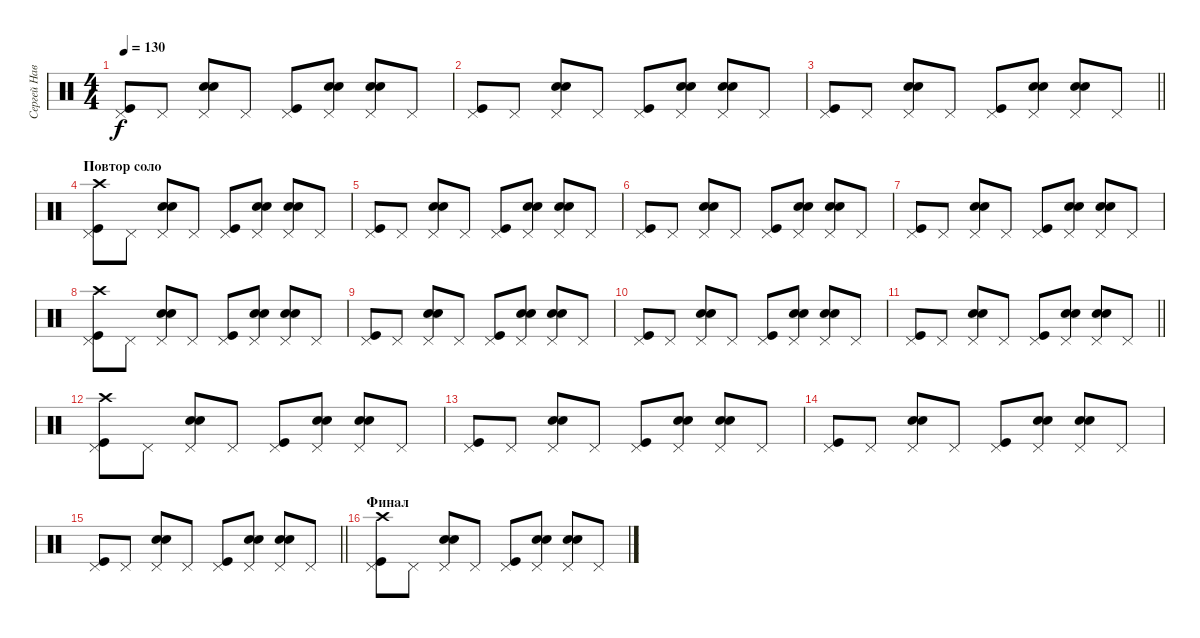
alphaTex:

\track ("Сергей Наветный (ударные)" "Сергей Нав") {instrument percussion}
\staff {score}
\articulation defaults
\ts (4 4)
\tempo 130
\clef neutral
\ks c
("Kick (hit)" "Pedal Hi-Hat (hit)").8{dy f} "Pedal Hi-Hat (hit)".8 ("Hand Clap (hit)" "Snare (hit) 2" "Pedal Hi-Hat (hit)").8 "Pedal Hi-Hat (hit)".8 ("Kick (hit)" "Pedal Hi-Hat (hit)").8 ("Hand Clap (hit)" "Snare (hit) 2" "Pedal Hi-Hat (hit)").8 ("Hand Clap (hit)" "Snare (hit) 2" "Pedal Hi-Hat (hit)").8 "Pedal Hi-Hat (hit)".8 |
("Kick (hit)" "Pedal Hi-Hat (hit)").8 "Pedal Hi-Hat (hit)".8 ("Hand Clap (hit)" "Snare (hit) 2" "Pedal Hi-Hat (hit)").8 "Pedal Hi-Hat (hit)".8 ("Kick (hit)" "Pedal Hi-Hat (hit)").8 ("Hand Clap (hit)" "Snare (hit) 2" "Pedal Hi-Hat (hit)").8 ("Hand Clap (hit)" "Snare (hit) 2" "Pedal Hi-Hat (hit)").8 "Pedal Hi-Hat (hit)".8 |
\barLineRight lightlight
("Kick (hit)" "Pedal Hi-Hat (hit)").8 "Pedal Hi-Hat (hit)".8 ("Hand Clap (hit)" "Snare (hit) 2" "Pedal Hi-Hat (hit)").8 "Pedal Hi-Hat (hit)".8 ("Kick (hit)" "Pedal Hi-Hat (hit)").8 ("Hand Clap (hit)" "Snare (hit) 2" "Pedal Hi-Hat (hit)").8 ("Hand Clap (hit)" "Snare (hit) 2" "Pedal Hi-Hat (hit)").8 "Pedal Hi-Hat (hit)".8 |
\section ("" "Повтор соло")
("Crash high (hit)" "Kick (hit)" "Pedal Hi-Hat (hit)").8 "Pedal Hi-Hat (hit)".8 ("Hand Clap (hit)" "Snare (hit) 2" "Pedal Hi-Hat (hit)").8 "Pedal Hi-Hat (hit)".8 ("Kick (hit)" "Pedal Hi-Hat (hit)").8 ("Hand Clap (hit)" "Snare (hit) 2" "Pedal Hi-Hat (hit)").8 ("Hand Clap (hit)" "Snare (hit) 2" "Pedal Hi-Hat (hit)").8 "Pedal Hi-Hat (hit)".8 |
("Kick (hit)" "Pedal Hi-Hat (hit)").8 "Pedal Hi-Hat (hit)".8 ("Hand Clap (hit)" "Snare (hit) 2" "Pedal Hi-Hat (hit)").8 "Pedal Hi-Hat (hit)".8 ("Kick (hit)" "Pedal Hi-Hat (hit)").8 ("Hand Clap (hit)" "Snare (hit) 2" "Pedal Hi-Hat (hit)").8 ("Hand Clap (hit)" "Snare (hit) 2" "Pedal Hi-Hat (hit)").8 "Pedal Hi-Hat (hit)".8 |
("Kick (hit)" "Pedal Hi-Hat (hit)").8 "Pedal Hi-Hat (hit)".8 ("Hand Clap (hit)" "Snare (hit) 2" "Pedal Hi-Hat (hit)").8 "Pedal Hi-Hat (hit)".8 ("Kick (hit)" "Pedal Hi-Hat (hit)").8 ("Hand Clap (hit)" "Snare (hit) 2" "Pedal Hi-Hat (hit)").8 ("Hand Clap (hit)" "Snare (hit) 2" "Pedal Hi-Hat (hit)").8 "Pedal Hi-Hat (hit)".8 |
("Kick (hit)" "Pedal Hi-Hat (hit)").8 "Pedal Hi-Hat (hit)".8 ("Hand Clap (hit)" "Snare (hit) 2" "Pedal Hi-Hat (hit)").8 "Pedal Hi-Hat (hit)".8 ("Kick (hit)" "Pedal Hi-Hat (hit)").8 ("Hand Clap (hit)" "Snare (hit) 2" "Pedal Hi-Hat (hit)").8 ("Hand Clap (hit)" "Snare (hit) 2" "Pedal Hi-Hat (hit)").8 "Pedal Hi-Hat (hit)".8 |
("Crash high (hit)" "Kick (hit)" "Pedal Hi-Hat (hit)").8 "Pedal Hi-Hat (hit)".8 ("Hand Clap (hit)" "Snare (hit) 2" "Pedal Hi-Hat (hit)").8 "Pedal Hi-Hat (hit)".8 ("Kick (hit)" "Pedal Hi-Hat (hit)").8 ("Hand Clap (hit)" "Snare (hit) 2" "Pedal Hi-Hat (hit)").8 ("Hand Clap (hit)" "Snare (hit) 2" "Pedal Hi-Hat (hit)").8 "Pedal Hi-Hat (hit)".8 |
("Kick (hit)" "Pedal Hi-Hat (hit)").8 "Pedal Hi-Hat (hit)".8 ("Hand Clap (hit)" "Snare (hit) 2" "Pedal Hi-Hat (hit)").8 "Pedal Hi-Hat (hit)".8 ("Kick (hit)" "Pedal Hi-Hat (hit)").8 ("Hand Clap (hit)" "Snare (hit) 2" "Pedal Hi-Hat (hit)").8 ("Hand Clap (hit)" "Snare (hit) 2" "Pedal Hi-Hat (hit)").8 "Pedal Hi-Hat (hit)".8 |
("Kick (hit)" "Pedal Hi-Hat (hit)").8 "Pedal Hi-Hat (hit)".8 ("Hand Clap (hit)" "Snare (hit) 2" "Pedal Hi-Hat (hit)").8 "Pedal Hi-Hat (hit)".8 ("Kick (hit)" "Pedal Hi-Hat (hit)").8 ("Hand Clap (hit)" "Snare (hit) 2" "Pedal Hi-Hat (hit)").8 ("Hand Clap (hit)" "Snare (hit) 2" "Pedal Hi-Hat (hit)").8 "Pedal Hi-Hat (hit)".8 |
\barLineRight lightlight
("Kick (hit)" "Pedal Hi-Hat (hit)").8 "Pedal Hi-Hat (hit)".8 ("Hand Clap (hit)" "Snare (hit) 2" "Pedal Hi-Hat (hit)").8 "Pedal Hi-Hat (hit)".8 ("Kick (hit)" "Pedal Hi-Hat (hit)").8 ("Hand Clap (hit)" "Snare (hit) 2" "Pedal Hi-Hat (hit)").8 ("Hand Clap (hit)" "Snare (hit) 2" "Pedal Hi-Hat (hit)").8 "Pedal Hi-Hat (hit)".8 |
("Crash high (hit)" "Kick (hit)" "Pedal Hi-Hat (hit)").8 "Pedal Hi-Hat (hit)".8 ("Hand Clap (hit)" "Snare (hit) 2" "Pedal Hi-Hat (hit)").8 "Pedal Hi-Hat (hit)".8 ("Kick (hit)" "Pedal Hi-Hat (hit)").8 ("Hand Clap (hit)" "Snare (hit) 2" "Pedal Hi-Hat (hit)").8 ("Hand Clap (hit)" "Snare (hit) 2" "Pedal Hi-Hat (hit)").8 "Pedal Hi-Hat (hit)".8 |
("Kick (hit)" "Pedal Hi-Hat (hit)").8 "Pedal Hi-Hat (hit)".8 ("Hand Clap (hit)" "Snare (hit) 2" "Pedal Hi-Hat (hit)").8 "Pedal Hi-Hat (hit)".8 ("Kick (hit)" "Pedal Hi-Hat (hit)").8 ("Hand Clap (hit)" "Snare (hit) 2" "Pedal Hi-Hat (hit)").8 ("Hand Clap (hit)" "Snare (hit) 2" "Pedal Hi-Hat (hit)").8 "Pedal Hi-Hat (hit)".8 |
("Kick (hit)" "Pedal Hi-Hat (hit)").8 "Pedal Hi-Hat (hit)".8 ("Hand Clap (hit)" "Snare (hit) 2" "Pedal Hi-Hat (hit)").8 "Pedal Hi-Hat (hit)".8 ("Kick (hit)" "Pedal Hi-Hat (hit)").8 ("Hand Clap (hit)" "Snare (hit) 2" "Pedal Hi-Hat (hit)").8 ("Hand Clap (hit)" "Snare (hit) 2" "Pedal Hi-Hat (hit)").8 "Pedal Hi-Hat (hit)".8 |
\barLineRight lightlight
("Kick (hit)" "Pedal Hi-Hat (hit)").8 "Pedal Hi-Hat (hit)".8 ("Hand Clap (hit)" "Snare (hit) 2" "Pedal Hi-Hat (hit)").8 "Pedal Hi-Hat (hit)".8 ("Kick (hit)" "Pedal Hi-Hat (hit)").8 ("Hand Clap (hit)" "Snare (hit) 2" "Pedal Hi-Hat (hit)").8 ("Hand Clap (hit)" "Snare (hit) 2" "Pedal Hi-Hat (hit)").8 "Pedal Hi-Hat (hit)".8 |
\section ("" "Финал")
("Crash high (hit)" "Kick (hit)" "Pedal Hi-Hat (hit)").8 "Pedal Hi-Hat (hit)".8 ("Hand Clap (hit)" "Snare (hit) 2" "Pedal Hi-Hat (hit)").8 "Pedal Hi-Hat (hit)".8 ("Kick (hit)" "Pedal Hi-Hat (hit)").8 ("Hand Clap (hit)" "Snare (hit) 2" "Pedal Hi-Hat (hit)").8 ("Hand Clap (hit)" "Snare (hit) 2" "Pedal Hi-Hat (hit)").8 "Pedal Hi-Hat (hit)".8
